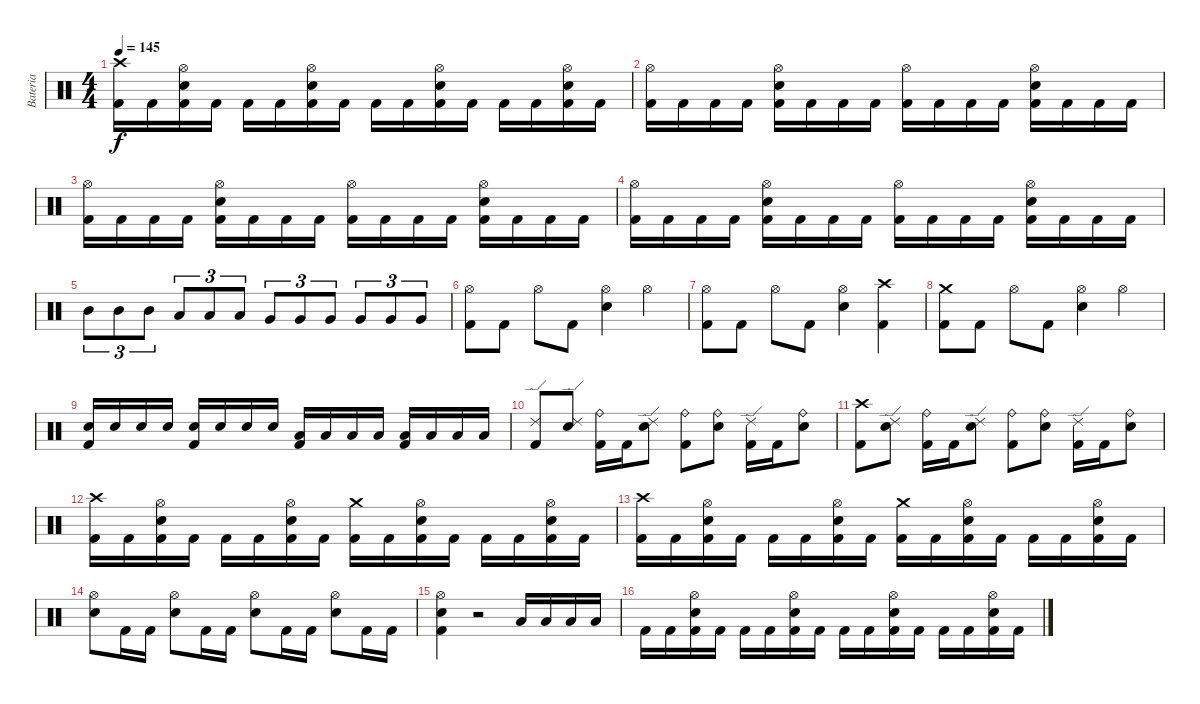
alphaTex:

\track ("Bateria" "Bateria") {instrument percussion}
\staff {score}
\articulation defaults
\ts (4 4)
\tempo 145
\clef neutral
\ks c
("Crash high (hit)" "Kick (hit) 2").16{dy f} "Kick (hit) 2".16 ("Snare (hit) 2" "Hi-Hat (open)" "Kick (hit) 2").16 "Kick (hit) 2".16 "Kick (hit) 2".16 "Kick (hit) 2".16 ("Snare (hit) 2" "Hi-Hat (open)" "Kick (hit) 2").16 "Kick (hit) 2".16 "Kick (hit) 2".16 "Kick (hit) 2".16 ("Snare (hit) 2" "Hi-Hat (open)" "Kick (hit) 2").16 "Kick (hit) 2".16 "Kick (hit) 2".16 "Kick (hit) 2".16 ("Snare (hit) 2" "Hi-Hat (open)" "Kick (hit) 2").16 "Kick (hit) 2".16 |
("Hi-Hat (open)" "Kick (hit) 2").16 "Kick (hit) 2".16 "Kick (hit) 2".16 "Kick (hit) 2".16 ("Snare (hit) 2" "Hi-Hat (open)" "Kick (hit) 2").16 "Kick (hit) 2".16 "Kick (hit) 2".16 "Kick (hit) 2".16 ("Hi-Hat (open)" "Kick (hit) 2").16 "Kick (hit) 2".16 "Kick (hit) 2".16 "Kick (hit) 2".16 ("Snare (hit) 2" "Hi-Hat (open)" "Kick (hit) 2").16 "Kick (hit) 2".16 "Kick (hit) 2".16 "Kick (hit) 2".16 |
("Hi-Hat (open)" "Kick (hit) 2").16 "Kick (hit) 2".16 "Kick (hit) 2".16 "Kick (hit) 2".16 ("Snare (hit) 2" "Hi-Hat (open)" "Kick (hit) 2").16 "Kick (hit) 2".16 "Kick (hit) 2".16 "Kick (hit) 2".16 ("Hi-Hat (open)" "Kick (hit) 2").16 "Kick (hit) 2".16 "Kick (hit) 2".16 "Kick (hit) 2".16 ("Snare (hit) 2" "Hi-Hat (open)" "Kick (hit) 2").16 "Kick (hit) 2".16 "Kick (hit) 2".16 "Kick (hit) 2".16 |
("Hi-Hat (open)" "Kick (hit) 2").16 "Kick (hit) 2".16 "Kick (hit) 2".16 "Kick (hit) 2".16 ("Snare (hit) 2" "Hi-Hat (open)" "Kick (hit) 2").16 "Kick (hit) 2".16 "Kick (hit) 2".16 "Kick (hit) 2".16 ("Hi-Hat (open)" "Kick (hit) 2").16 "Kick (hit) 2".16 "Kick (hit) 2".16 "Kick (hit) 2".16 ("Snare (hit) 2" "Hi-Hat (open)" "Kick (hit) 2").16 "Kick (hit) 2".16 "Kick (hit) 2".16 "Kick (hit) 2".16 |
"Mid Tom (hit)".8{tu (3 2)} "Mid Tom (hit)".8{tu (3 2)} "Mid Tom (hit)".8{tu (3 2)} "Low Tom (hit)".8{tu (3 2)} "Low Tom (hit)".8{tu (3 2)} "Low Tom (hit)".8{tu (3 2)} "Very Low Tom (hit)".8{tu (3 2)} "Very Low Tom (hit)".8{tu (3 2)} "Very Low Tom (hit)".8{tu (3 2)} "Very Low Tom (hit)".8{tu (3 2)} "Very Low Tom (hit)".8{tu (3 2)} "Very Low Tom (hit)".8{tu (3 2)} |
("Kick (hit) 2" "Hi-Hat (open)").8 "Kick (hit) 2".8 "Hi-Hat (open)".8 "Kick (hit) 2".8 ("Snare (hit) 2" "Hi-Hat (open)").4 "Hi-Hat (open)".4 |
("Kick (hit) 2" "Hi-Hat (open)").8 "Kick (hit) 2".8 "Hi-Hat (open)".8 "Kick (hit) 2".8 ("Snare (hit) 2" "Hi-Hat (open)").4 ("Crash high (hit)" "Kick (hit) 2").4 |
("Kick (hit) 2" "Crash medium (hit)").8 "Kick (hit) 2".8 "Hi-Hat (open)".8 "Kick (hit) 2".8 ("Snare (hit) 2" "Hi-Hat (open)").4 "Hi-Hat (open)".4 |
("Kick (hit) 2" "Snare (hit) 2").16 "Snare (hit) 2".16 "Snare (hit) 2".16 "Snare (hit) 2".16 ("Kick (hit) 2" "Snare (hit) 2").16 "Snare (hit) 2".16 "Snare (hit) 2".16 "Snare (hit) 2".16 ("Kick (hit) 2" "Low Tom (hit)").16 "Low Tom (hit)".16 "Low Tom (hit)".16 "Low Tom (hit)".16 ("Kick (hit) 2" "Low Tom (hit)").16 "Low Tom (hit)".16 "Low Tom (hit)".16 "Low Tom (hit)".16 |
("Ride (edge) 2" "Kick (hit) 2").8 ("Ride (edge) 2" "Snare (hit) 2").8 ("Ride (bell)" "Kick (hit) 2").16 "Kick (hit) 2".16 ("Ride (edge) 2" "Snare (hit) 2").8 ("Ride (bell)" "Kick (hit) 2").8 ("Ride (bell)" "Snare (hit) 2").8 ("Ride (edge) 2" "Kick (hit) 2").16 "Kick (hit) 2".16 ("Ride (bell)" "Snare (hit) 2").8 |
("Crash high (hit)" "Kick (hit) 2").8 ("Ride (edge) 2" "Snare (hit) 2").8 ("Ride (bell)" "Kick (hit) 2").16 "Kick (hit) 2".16 ("Ride (edge) 2" "Snare (hit) 2").8 ("Ride (bell)" "Kick (hit) 2").8 ("Ride (bell)" "Snare (hit) 2").8 ("Ride (edge) 2" "Kick (hit) 2").16 "Kick (hit) 2".16 ("Ride (bell)" "Snare (hit) 2").8 |
("Crash high (hit)" "Kick (hit) 2").16 "Kick (hit) 2".16 ("Hi-Hat (open)" "Snare (hit) 2" "Kick (hit) 2").16 "Kick (hit) 2".16 "Kick (hit) 2".16 "Kick (hit) 2".16 ("Hi-Hat (open)" "Snare (hit) 2" "Kick (hit) 2").16 "Kick (hit) 2".16 ("Crash medium (hit)" "Kick (hit) 2").16 "Kick (hit) 2".16 ("Hi-Hat (open)" "Snare (hit) 2" "Kick (hit) 2").16 "Kick (hit) 2".16 "Kick (hit) 2".16 "Kick (hit) 2".16 ("Hi-Hat (open)" "Snare (hit) 2" "Kick (hit) 2").16 "Kick (hit) 2".16 |
("Crash high (hit)" "Kick (hit) 2").16 "Kick (hit) 2".16 ("Hi-Hat (open)" "Snare (hit) 2" "Kick (hit) 2").16 "Kick (hit) 2".16 "Kick (hit) 2".16 "Kick (hit) 2".16 ("Hi-Hat (open)" "Snare (hit) 2" "Kick (hit) 2").16 "Kick (hit) 2".16 ("Crash medium (hit)" "Kick (hit) 2").16 "Kick (hit) 2".16 ("Hi-Hat (open)" "Snare (hit) 2" "Kick (hit) 2").16 "Kick (hit) 2".16 "Kick (hit) 2".16 "Kick (hit) 2".16 ("Hi-Hat (open)" "Snare (hit) 2" "Kick (hit) 2").16 "Kick (hit) 2".16 |
("Hi-Hat (open)" "Snare (hit) 2").8 "Kick (hit) 2".16 "Kick (hit) 2".16 ("Hi-Hat (open)" "Snare (hit) 2").8 "Kick (hit) 2".16 "Kick (hit) 2".16 ("Hi-Hat (open)" "Snare (hit) 2").8 "Kick (hit) 2".16 "Kick (hit) 2".16 ("Hi-Hat (open)" "Snare (hit) 2").8 "Kick (hit) 2".16 "Kick (hit) 2".16 |
("Hi-Hat (open)" "Snare (hit) 2" "Kick (hit) 2").4 r.2 "Low Tom (hit)".16 "Low Tom (hit)".16 "Low Tom (hit)".16 "Low Tom (hit)".16 |
"Kick (hit) 2".16 "Kick (hit) 2".16 ("Hi-Hat (open)" "Snare (hit) 2" "Kick (hit) 2").16 "Kick (hit) 2".16 "Kick (hit) 2".16 "Kick (hit) 2".16 ("Hi-Hat (open)" "Snare (hit) 2" "Kick (hit) 2").16 "Kick (hit) 2".16 "Kick (hit) 2".16 "Kick (hit) 2".16 ("Hi-Hat (open)" "Snare (hit) 2" "Kick (hit) 2").16 "Kick (hit) 2".16 "Kick (hit) 2".16 "Kick (hit) 2".16 ("Hi-Hat (open)" "Snare (hit) 2" "Kick (hit) 2").16 "Kick (hit) 2".16
